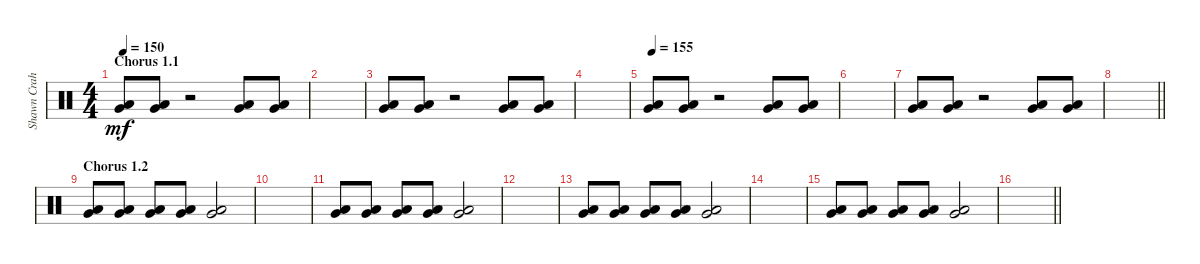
\track ("Shawn Crahan" "Shawn Crah") {instrument percussion}
\staff {score}
\articulation defaults
\ts (4 4)
\section ("" "Chorus 1.1")
\tempo 150
\clef neutral
\ks c
("Very Low Tom (hit)" "Low Floor Tom (hit)").8{dy mf} ("Very Low Tom (hit)" "Low Floor Tom (hit)").8 r.2 ("Very Low Tom (hit)" "Low Floor Tom (hit)").8 ("Very Low Tom (hit)" "Low Floor Tom (hit)").8 |
|
("Very Low Tom (hit)" "Low Floor Tom (hit)").8 ("Very Low Tom (hit)" "Low Floor Tom (hit)").8 r.2 ("Very Low Tom (hit)" "Low Floor Tom (hit)").8 ("Very Low Tom (hit)" "Low Floor Tom (hit)").8 |
|
\tempo 155
("Very Low Tom (hit)" "Low Floor Tom (hit)").8 ("Very Low Tom (hit)" "Low Floor Tom (hit)").8 r.2 ("Very Low Tom (hit)" "Low Floor Tom (hit)").8 ("Very Low Tom (hit)" "Low Floor Tom (hit)").8 |
|
("Very Low Tom (hit)" "Low Floor Tom (hit)").8 ("Very Low Tom (hit)" "Low Floor Tom (hit)").8 r.2 ("Very Low Tom (hit)" "Low Floor Tom (hit)").8 ("Very Low Tom (hit)" "Low Floor Tom (hit)").8 |
\barLineRight lightlight
|
\section ("" "Chorus 1.2")
("Very Low Tom (hit)" "Low Floor Tom (hit)").8 ("Very Low Tom (hit)" "Low Floor Tom (hit)").8 ("Very Low Tom (hit)" "Low Floor Tom (hit)").8 ("Very Low Tom (hit)" "Low Floor Tom (hit)").8 ("Very Low Tom (hit)" "Low Floor Tom (hit)").2 |
|
("Very Low Tom (hit)" "Low Floor Tom (hit)").8 ("Very Low Tom (hit)" "Low Floor Tom (hit)").8 ("Very Low Tom (hit)" "Low Floor Tom (hit)").8 ("Very Low Tom (hit)" "Low Floor Tom (hit)").8 ("Very Low Tom (hit)" "Low Floor Tom (hit)").2 |
|
("Very Low Tom (hit)" "Low Floor Tom (hit)").8 ("Very Low Tom (hit)" "Low Floor Tom (hit)").8 ("Very Low Tom (hit)" "Low Floor Tom (hit)").8 ("Very Low Tom (hit)" "Low Floor Tom (hit)").8 ("Very Low Tom (hit)" "Low Floor Tom (hit)").2 |
|
("Very Low Tom (hit)" "Low Floor Tom (hit)").8 ("Very Low Tom (hit)" "Low Floor Tom (hit)").8 ("Very Low Tom (hit)" "Low Floor Tom (hit)").8 ("Very Low Tom (hit)" "Low Floor Tom (hit)").8 ("Very Low Tom (hit)" "Low Floor Tom (hit)").2 |
\barLineRight lightlight
